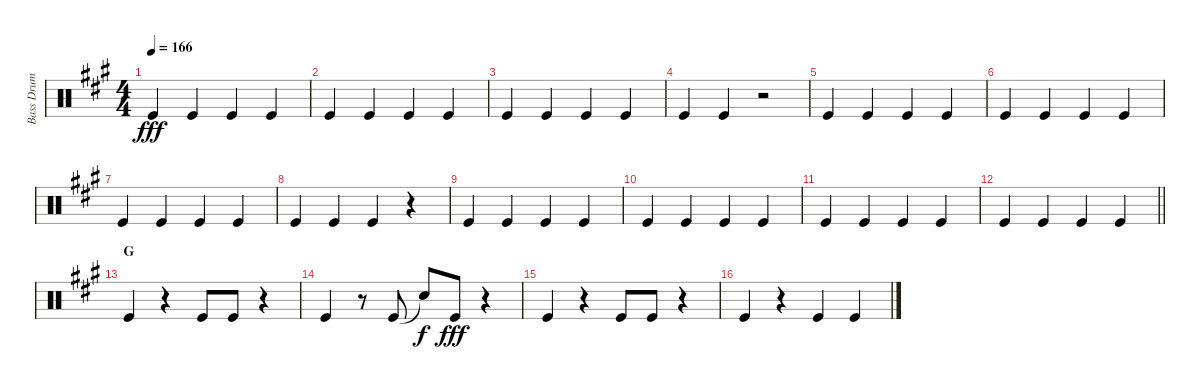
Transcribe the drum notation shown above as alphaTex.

\track ("Bass Drum" "Bass Drum") {instrument percussion}
\staff {score}
\articulation defaults
\ts (4 4)
\tempo 166
\clef neutral
\ks a "Kick (hit)".4{dy fff} "Kick (hit)".4 "Kick (hit)".4 "Kick (hit)".4
|
"Kick (hit)".4 "Kick (hit)".4 "Kick (hit)".4 "Kick (hit)".4 |
"Kick (hit)".4 "Kick (hit)".4 "Kick (hit)".4 "Kick (hit)".4 |
"Kick (hit)".4 "Kick (hit)".4 r.2 |
"Kick (hit)".4 "Kick (hit)".4 "Kick (hit)".4 "Kick (hit)".4 |
"Kick (hit)".4 "Kick (hit)".4 "Kick (hit)".4 "Kick (hit)".4 |
"Kick (hit)".4 "Kick (hit)".4 "Kick (hit)".4 "Kick (hit)".4 |
"Kick (hit)".4 "Kick (hit)".4 "Kick (hit)".4 r.4 |
"Kick (hit)".4 "Kick (hit)".4 "Kick (hit)".4 "Kick (hit)".4 |
"Kick (hit)".4 "Kick (hit)".4 "Kick (hit)".4 "Kick (hit)".4 |
"Kick (hit)".4 "Kick (hit)".4 "Kick (hit)".4 "Kick (hit)".4 |
\barLineRight lightlight "Kick (hit)".4 "Kick (hit)".4 "Kick (hit)".4 "Kick (hit)".4
|
\section ("" "G")
"Kick (hit)".4 r.4 "Kick (hit)".8 "Kick (hit)".8 r.4 |
"Kick (hit)".4 r.8 "Kick (hit)".8 "Snare (hit)"{t}.8{dy f} "Kick (hit)".8{dy fff} r.4 |
"Kick (hit)".4 r.4 "Kick (hit)".8 "Kick (hit)".8 r.4 |
"Kick (hit)".4 r.4 "Kick (hit)".4 "Kick (hit)".4
